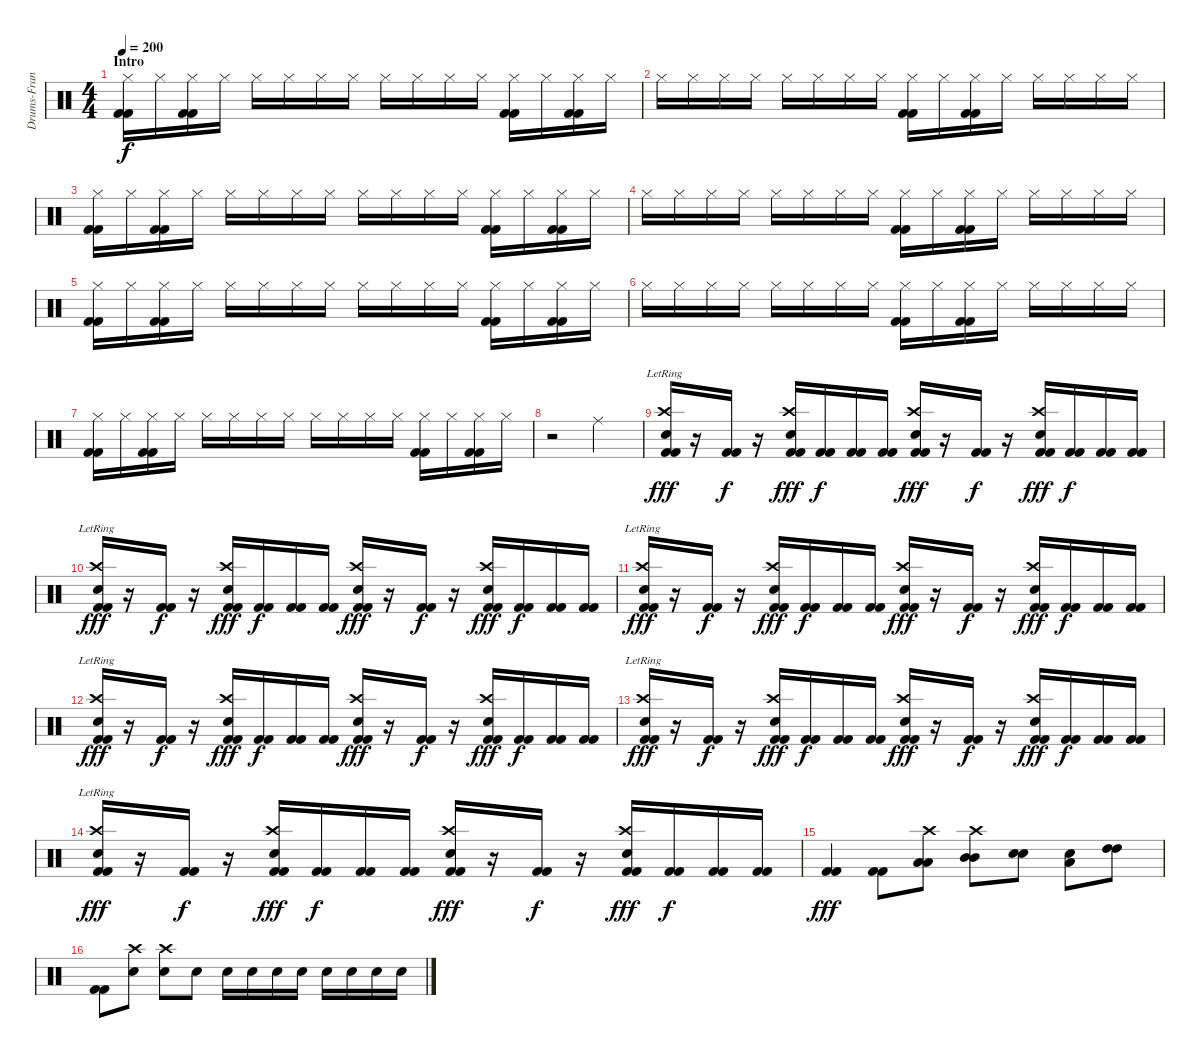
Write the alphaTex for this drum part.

\track ("Drums-Francis Mark" "Drums-Fran") {instrument percussion}
\staff {score}
\articulation defaults
\ts (4 4)
\section ("" "Intro")
\tempo 200
\clef neutral
\ks c
("Hi-Hat (closed)" "Kick (hit) 2" "Kick (hit) 2").16{dy f} "Hi-Hat (closed)".16 ("Hi-Hat (closed)" "Kick (hit) 2" "Kick (hit) 2").16 "Hi-Hat (closed)".16 "Hi-Hat (closed)".16 "Hi-Hat (closed)".16 "Hi-Hat (closed)".16 "Hi-Hat (closed)".16 "Hi-Hat (closed)".16 "Hi-Hat (closed)".16 "Hi-Hat (closed)".16 "Hi-Hat (closed)".16 ("Hi-Hat (closed)" "Kick (hit) 2" "Kick (hit) 2").16 "Hi-Hat (closed)".16 ("Hi-Hat (closed)" "Kick (hit) 2" "Kick (hit) 2").16 "Hi-Hat (closed)".16 |
"Hi-Hat (closed)".16 "Hi-Hat (closed)".16 "Hi-Hat (closed)".16 "Hi-Hat (closed)".16 "Hi-Hat (closed)".16 "Hi-Hat (closed)".16 "Hi-Hat (closed)".16 "Hi-Hat (closed)".16 ("Hi-Hat (closed)" "Kick (hit) 2" "Kick (hit) 2").16 "Hi-Hat (closed)".16 ("Hi-Hat (closed)" "Kick (hit) 2" "Kick (hit) 2").16 "Hi-Hat (closed)".16 "Hi-Hat (closed)".16 "Hi-Hat (closed)".16 "Hi-Hat (closed)".16 "Hi-Hat (closed)".16 |
("Hi-Hat (closed)" "Kick (hit) 2" "Kick (hit) 2").16 "Hi-Hat (closed)".16 ("Hi-Hat (closed)" "Kick (hit) 2" "Kick (hit) 2").16 "Hi-Hat (closed)".16 "Hi-Hat (closed)".16 "Hi-Hat (closed)".16 "Hi-Hat (closed)".16 "Hi-Hat (closed)".16 "Hi-Hat (closed)".16 "Hi-Hat (closed)".16 "Hi-Hat (closed)".16 "Hi-Hat (closed)".16 ("Hi-Hat (closed)" "Kick (hit) 2" "Kick (hit) 2").16 "Hi-Hat (closed)".16 ("Hi-Hat (closed)" "Kick (hit) 2" "Kick (hit) 2").16 "Hi-Hat (closed)".16 |
"Hi-Hat (closed)".16 "Hi-Hat (closed)".16 "Hi-Hat (closed)".16 "Hi-Hat (closed)".16 "Hi-Hat (closed)".16 "Hi-Hat (closed)".16 "Hi-Hat (closed)".16 "Hi-Hat (closed)".16 ("Hi-Hat (closed)" "Kick (hit) 2" "Kick (hit) 2").16 "Hi-Hat (closed)".16 ("Hi-Hat (closed)" "Kick (hit) 2" "Kick (hit) 2").16 "Hi-Hat (closed)".16 "Hi-Hat (closed)".16 "Hi-Hat (closed)".16 "Hi-Hat (closed)".16 "Hi-Hat (closed)".16 |
("Hi-Hat (closed)" "Kick (hit) 2" "Kick (hit) 2").16 "Hi-Hat (closed)".16 ("Hi-Hat (closed)" "Kick (hit) 2" "Kick (hit) 2").16 "Hi-Hat (closed)".16 "Hi-Hat (closed)".16 "Hi-Hat (closed)".16 "Hi-Hat (closed)".16 "Hi-Hat (closed)".16 "Hi-Hat (closed)".16 "Hi-Hat (closed)".16 "Hi-Hat (closed)".16 "Hi-Hat (closed)".16 ("Hi-Hat (closed)" "Kick (hit) 2" "Kick (hit) 2").16 "Hi-Hat (closed)".16 ("Hi-Hat (closed)" "Kick (hit) 2" "Kick (hit) 2").16 "Hi-Hat (closed)".16 |
"Hi-Hat (closed)".16 "Hi-Hat (closed)".16 "Hi-Hat (closed)".16 "Hi-Hat (closed)".16 "Hi-Hat (closed)".16 "Hi-Hat (closed)".16 "Hi-Hat (closed)".16 "Hi-Hat (closed)".16 ("Hi-Hat (closed)" "Kick (hit) 2" "Kick (hit) 2").16 "Hi-Hat (closed)".16 ("Hi-Hat (closed)" "Kick (hit) 2" "Kick (hit) 2").16 "Hi-Hat (closed)".16 "Hi-Hat (closed)".16 "Hi-Hat (closed)".16 "Hi-Hat (closed)".16 "Hi-Hat (closed)".16 |
("Hi-Hat (closed)" "Kick (hit) 2" "Kick (hit) 2").16 "Hi-Hat (closed)".16 ("Hi-Hat (closed)" "Kick (hit) 2" "Kick (hit) 2").16 "Hi-Hat (closed)".16 "Hi-Hat (closed)".16 "Hi-Hat (closed)".16 "Hi-Hat (closed)".16 "Hi-Hat (closed)".16 "Hi-Hat (closed)".16 "Hi-Hat (closed)".16 "Hi-Hat (closed)".16 "Hi-Hat (closed)".16 ("Hi-Hat (closed)" "Kick (hit) 2" "Kick (hit) 2").16 "Hi-Hat (closed)".16 ("Hi-Hat (closed)" "Kick (hit) 2" "Kick (hit) 2").16 "Hi-Hat (closed)".16 |
r.2 "Ride (middle)".2 |
("Crash high (hit)"{lr} "Electric Snare (hit)" "Kick (hit) 2" "Kick (hit) 2").16{dy fff} r.16 ("Kick (hit) 2" "Kick (hit) 2").16{dy f} r.16 ("Crash high (hit)" "Electric Snare (hit)" "Kick (hit) 2" "Kick (hit) 2").16{dy fff} ("Kick (hit) 2" "Kick (hit) 2").16{dy f} ("Kick (hit) 2" "Kick (hit) 2").16 ("Kick (hit) 2" "Kick (hit) 2").16 ("Crash high (hit)" "Electric Snare (hit)" "Kick (hit) 2" "Kick (hit) 2").16{dy fff} r.16 ("Kick (hit) 2" "Kick (hit) 2").16{dy f} r.16 ("Crash high (hit)" "Electric Snare (hit)" "Kick (hit) 2" "Kick (hit) 2").16{dy fff} ("Kick (hit) 2" "Kick (hit) 2").16{dy f} ("Kick (hit) 2" "Kick (hit) 2").16 ("Kick (hit) 2" "Kick (hit) 2").16 |
("Crash high (hit)"{lr} "Electric Snare (hit)" "Kick (hit) 2" "Kick (hit) 2").16{dy fff} r.16 ("Kick (hit) 2" "Kick (hit) 2").16{dy f} r.16 ("Crash high (hit)" "Electric Snare (hit)" "Kick (hit) 2" "Kick (hit) 2").16{dy fff} ("Kick (hit) 2" "Kick (hit) 2").16{dy f} ("Kick (hit) 2" "Kick (hit) 2").16 ("Kick (hit) 2" "Kick (hit) 2").16 ("Crash high (hit)" "Electric Snare (hit)" "Kick (hit) 2" "Kick (hit) 2").16{dy fff} r.16 ("Kick (hit) 2" "Kick (hit) 2").16{dy f} r.16 ("Crash high (hit)" "Electric Snare (hit)" "Kick (hit) 2" "Kick (hit) 2").16{dy fff} ("Kick (hit) 2" "Kick (hit) 2").16{dy f} ("Kick (hit) 2" "Kick (hit) 2").16 ("Kick (hit) 2" "Kick (hit) 2").16 |
("Crash high (hit)"{lr} "Electric Snare (hit)" "Kick (hit) 2" "Kick (hit) 2").16{dy fff} r.16 ("Kick (hit) 2" "Kick (hit) 2").16{dy f} r.16 ("Crash high (hit)" "Electric Snare (hit)" "Kick (hit) 2" "Kick (hit) 2").16{dy fff} ("Kick (hit) 2" "Kick (hit) 2").16{dy f} ("Kick (hit) 2" "Kick (hit) 2").16 ("Kick (hit) 2" "Kick (hit) 2").16 ("Crash high (hit)" "Electric Snare (hit)" "Kick (hit) 2" "Kick (hit) 2").16{dy fff} r.16 ("Kick (hit) 2" "Kick (hit) 2").16{dy f} r.16 ("Crash high (hit)" "Electric Snare (hit)" "Kick (hit) 2" "Kick (hit) 2").16{dy fff} ("Kick (hit) 2" "Kick (hit) 2").16{dy f} ("Kick (hit) 2" "Kick (hit) 2").16 ("Kick (hit) 2" "Kick (hit) 2").16 |
("Crash high (hit)"{lr} "Electric Snare (hit)" "Kick (hit) 2" "Kick (hit) 2").16{dy fff} r.16 ("Kick (hit) 2" "Kick (hit) 2").16{dy f} r.16 ("Crash high (hit)" "Electric Snare (hit)" "Kick (hit) 2" "Kick (hit) 2").16{dy fff} ("Kick (hit) 2" "Kick (hit) 2").16{dy f} ("Kick (hit) 2" "Kick (hit) 2").16 ("Kick (hit) 2" "Kick (hit) 2").16 ("Crash high (hit)" "Electric Snare (hit)" "Kick (hit) 2" "Kick (hit) 2").16{dy fff} r.16 ("Kick (hit) 2" "Kick (hit) 2").16{dy f} r.16 ("Crash high (hit)" "Electric Snare (hit)" "Kick (hit) 2" "Kick (hit) 2").16{dy fff} ("Kick (hit) 2" "Kick (hit) 2").16{dy f} ("Kick (hit) 2" "Kick (hit) 2").16 ("Kick (hit) 2" "Kick (hit) 2").16 |
("Crash high (hit)"{lr} "Electric Snare (hit)" "Kick (hit) 2" "Kick (hit) 2").16{dy fff} r.16 ("Kick (hit) 2" "Kick (hit) 2").16{dy f} r.16 ("Crash high (hit)" "Electric Snare (hit)" "Kick (hit) 2" "Kick (hit) 2").16{dy fff} ("Kick (hit) 2" "Kick (hit) 2").16{dy f} ("Kick (hit) 2" "Kick (hit) 2").16 ("Kick (hit) 2" "Kick (hit) 2").16 ("Crash high (hit)" "Electric Snare (hit)" "Kick (hit) 2" "Kick (hit) 2").16{dy fff} r.16 ("Kick (hit) 2" "Kick (hit) 2").16{dy f} r.16 ("Crash high (hit)" "Electric Snare (hit)" "Kick (hit) 2" "Kick (hit) 2").16{dy fff} ("Kick (hit) 2" "Kick (hit) 2").16{dy f} ("Kick (hit) 2" "Kick (hit) 2").16 ("Kick (hit) 2" "Kick (hit) 2").16 |
("Crash high (hit)"{lr} "Electric Snare (hit)" "Kick (hit) 2" "Kick (hit) 2").16{dy fff} r.16 ("Kick (hit) 2" "Kick (hit) 2").16{dy f} r.16 ("Crash high (hit)" "Electric Snare (hit)" "Kick (hit) 2" "Kick (hit) 2").16{dy fff} ("Kick (hit) 2" "Kick (hit) 2").16{dy f} ("Kick (hit) 2" "Kick (hit) 2").16 ("Kick (hit) 2" "Kick (hit) 2").16 ("Crash high (hit)" "Electric Snare (hit)" "Kick (hit) 2" "Kick (hit) 2").16{dy fff} r.16 ("Kick (hit) 2" "Kick (hit) 2").16{dy f} r.16 ("Crash high (hit)" "Electric Snare (hit)" "Kick (hit) 2" "Kick (hit) 2").16{dy fff} ("Kick (hit) 2" "Kick (hit) 2").16{dy f} ("Kick (hit) 2" "Kick (hit) 2").16 ("Kick (hit) 2" "Kick (hit) 2").16 |
("Kick (hit) 2" "Kick (hit) 2").4{dy fff} ("Kick (hit) 2" "Kick (hit) 2").8 ("Crash high (hit)" "Low Tom (hit)" "Low Tom (hit)").8 ("Crash high (hit)" "Mid Tom (hit)" "Mid Tom (hit)").8 ("Electric Snare (hit)" "Electric Snare (hit)").8 ("Low Tom (hit)" "Electric Snare (hit)").8 ("High Tom (hit)" "High Tom (hit)").8 |
("Kick (hit) 2" "Kick (hit) 2").8 ("Crash high (hit)" "Electric Snare (hit)").8 ("Crash high (hit)" "Electric Snare (hit)").8 "Electric Snare (hit)".8 "Electric Snare (hit)".16 "Electric Snare (hit)".16 "Electric Snare (hit)".16 "Electric Snare (hit)".16 "Electric Snare (hit)".16 "Electric Snare (hit)".16 "Electric Snare (hit)".16 "Electric Snare (hit)".16
